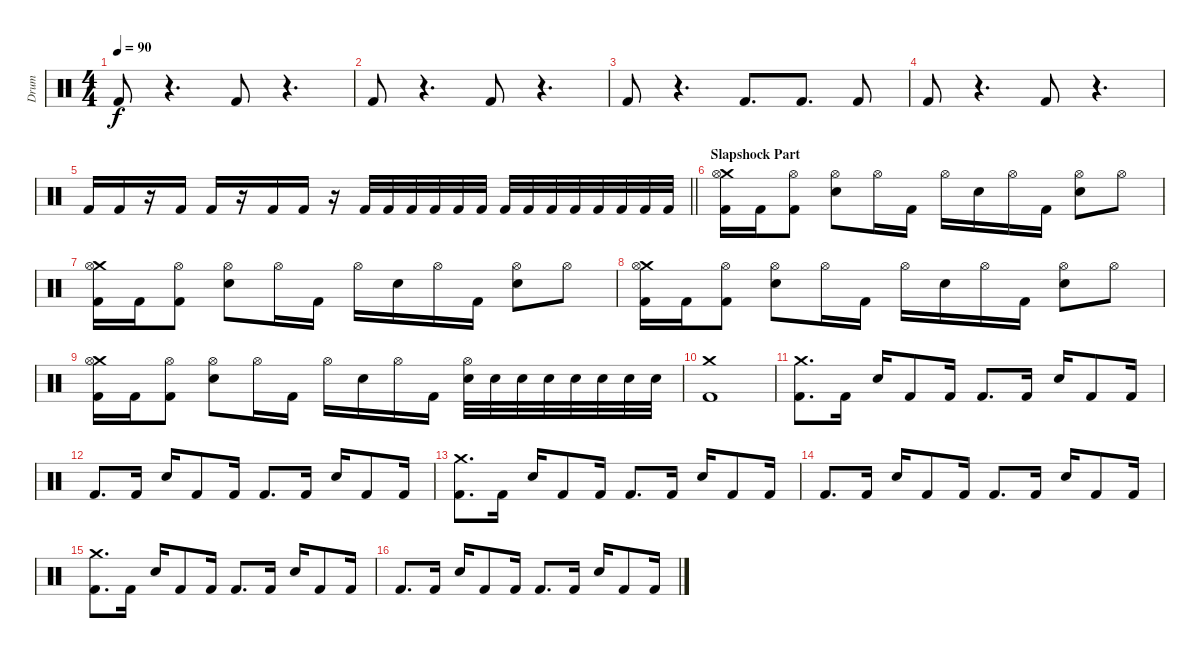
\track ("Drum" "Drum") {instrument percussion}
\staff {score}
\articulation defaults
\ts (4 4)
\tempo 90
\clef neutral
\ks c "Kick (hit) 2".8{dy f}
r.4{d} "Kick (hit) 2".8 r.4{d} |
"Kick (hit) 2".8 r.4{d} "Kick (hit) 2".8 r.4{d} |
"Kick (hit) 2".8 r.4{d} "Kick (hit) 2".8{d} "Kick (hit) 2".8{d} "Kick (hit) 2".8 |
"Kick (hit) 2".8 r.4{d} "Kick (hit) 2".8 r.4{d} |
\barLineRight lightlight "Kick (hit) 2".16 "Kick (hit) 2".16
r.16 "Kick (hit) 2".16 "Kick (hit) 2".16 r.16 "Kick (hit) 2".16 "Kick (hit) 2".16 r.16 "Kick (hit) 2".32 "Kick (hit) 2".32 "Kick (hit) 2".32 "Kick (hit) 2".32 "Kick (hit) 2".32 "Kick (hit) 2".32 "Kick (hit) 2".32 "Kick (hit) 2".32 "Kick (hit) 2".32 "Kick (hit) 2".32 "Kick (hit) 2".32 "Kick (hit) 2".32 "Kick (hit) 2".32 "Kick (hit) 2".32 |
\section ("" "Slapshock Part")
("Crash medium (hit)" "Hi-Hat (open)" "Kick (hit) 2").16 "Kick (hit) 2".16 ("Hi-Hat (open)" "Kick (hit) 2").8 ("Hi-Hat (open)" "Electric Snare (hit)").8 "Hi-Hat (open)".16 "Kick (hit) 2".16 "Hi-Hat (open)".16 "Electric Snare (hit)".16 "Hi-Hat (open)".16 "Kick (hit) 2".16 ("Hi-Hat (open)" "Electric Snare (hit)").8 "Hi-Hat (open)".8 |
("Crash medium (hit)" "Hi-Hat (open)" "Kick (hit) 2").16 "Kick (hit) 2".16 ("Hi-Hat (open)" "Kick (hit) 2").8 ("Hi-Hat (open)" "Electric Snare (hit)").8 "Hi-Hat (open)".16 "Kick (hit) 2".16 "Hi-Hat (open)".16 "Electric Snare (hit)".16 "Hi-Hat (open)".16 "Kick (hit) 2".16 ("Hi-Hat (open)" "Electric Snare (hit)").8 "Hi-Hat (open)".8 |
("Crash medium (hit)" "Hi-Hat (open)" "Kick (hit) 2").16 "Kick (hit) 2".16 ("Hi-Hat (open)" "Kick (hit) 2").8 ("Hi-Hat (open)" "Electric Snare (hit)").8 "Hi-Hat (open)".16 "Kick (hit) 2".16 "Hi-Hat (open)".16 "Electric Snare (hit)".16 "Hi-Hat (open)".16 "Kick (hit) 2".16 ("Hi-Hat (open)" "Electric Snare (hit)").8 "Hi-Hat (open)".8 |
("Crash medium (hit)" "Hi-Hat (open)" "Kick (hit) 2").16 "Kick (hit) 2".16 ("Hi-Hat (open)" "Kick (hit) 2").8 ("Hi-Hat (open)" "Electric Snare (hit)").8 "Hi-Hat (open)".16 "Kick (hit) 2".16 "Hi-Hat (open)".16 "Electric Snare (hit)".16 "Hi-Hat (open)".16 "Kick (hit) 2".16 ("Hi-Hat (open)" "Electric Snare (hit)").32 "Electric Snare (hit)".32 "Electric Snare (hit)".32 "Electric Snare (hit)".32 "Electric Snare (hit)".32 "Electric Snare (hit)".32 "Electric Snare (hit)".32 "Electric Snare (hit)".32 |
("Crash medium (hit)" "Kick (hit) 2").1 |
("Crash medium (hit)" "Kick (hit) 2").8{d} "Kick (hit) 2".16 "Electric Snare (hit)".16 "Kick (hit) 2".8 "Kick (hit) 2".16 "Kick (hit) 2".8{d} "Kick (hit) 2".16 "Electric Snare (hit)".16 "Kick (hit) 2".8 "Kick (hit) 2".16 |
"Kick (hit) 2".8{d} "Kick (hit) 2".16 "Electric Snare (hit)".16 "Kick (hit) 2".8 "Kick (hit) 2".16 "Kick (hit) 2".8{d} "Kick (hit) 2".16 "Electric Snare (hit)".16 "Kick (hit) 2".8 "Kick (hit) 2".16 |
("Crash medium (hit)" "Kick (hit) 2").8{d} "Kick (hit) 2".16 "Electric Snare (hit)".16 "Kick (hit) 2".8 "Kick (hit) 2".16 "Kick (hit) 2".8{d} "Kick (hit) 2".16 "Electric Snare (hit)".16 "Kick (hit) 2".8 "Kick (hit) 2".16 |
"Kick (hit) 2".8{d} "Kick (hit) 2".16 "Electric Snare (hit)".16 "Kick (hit) 2".8 "Kick (hit) 2".16 "Kick (hit) 2".8{d} "Kick (hit) 2".16 "Electric Snare (hit)".16 "Kick (hit) 2".8 "Kick (hit) 2".16 |
("Crash medium (hit)" "Kick (hit) 2").8{d} "Kick (hit) 2".16 "Electric Snare (hit)".16 "Kick (hit) 2".8 "Kick (hit) 2".16 "Kick (hit) 2".8{d} "Kick (hit) 2".16 "Electric Snare (hit)".16 "Kick (hit) 2".8 "Kick (hit) 2".16 |
"Kick (hit) 2".8{d} "Kick (hit) 2".16 "Electric Snare (hit)".16 "Kick (hit) 2".8 "Kick (hit) 2".16 "Kick (hit) 2".8{d} "Kick (hit) 2".16 "Electric Snare (hit)".16 "Kick (hit) 2".8 "Kick (hit) 2".16
